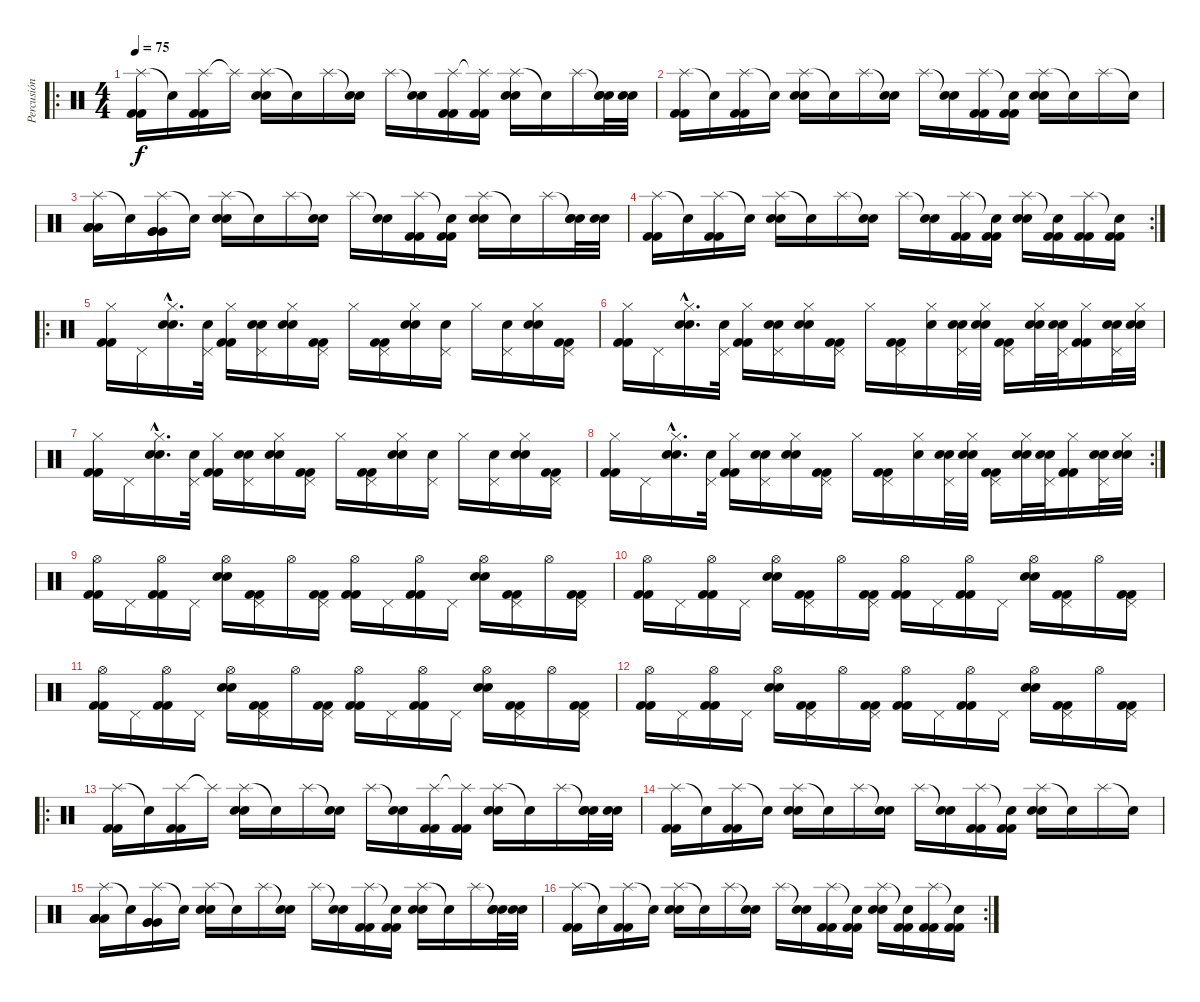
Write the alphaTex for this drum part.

\track ("Percusión" "Percusión") {instrument percussion}
\staff {score}
\articulation defaults
\ro
\ts (4 4)
\tempo 75
\clef neutral
\ks c
("Splash (hit)" "Kick (hit) 2" "Kick (hit) 2").16{dy f} "Snare (hit)"{t}.16 ("Splash (hit)" "Kick (hit) 2" "Kick (hit) 2").16 "Splash (hit)"{t}.16 ("Splash (hit)" "Electric Snare (hit)" "Electric Snare (hit)").16 "Snare (hit)"{t}.16 "Splash (hit)".16 ("Snare (hit)"{t} "Electric Snare (hit)").16 "Splash (hit)".16 ("Snare (hit)"{t} "Electric Snare (hit)").16 ("Splash (hit)" "Kick (hit) 2" "Kick (hit) 2").16 ("Splash (hit)"{t} "Kick (hit) 2" "Kick (hit) 2").16 ("Splash (hit)" "Electric Snare (hit)" "Electric Snare (hit)").16 "Snare (hit)"{t}.16 "Splash (hit)".16 ("Snare (hit)"{t} "Electric Snare (hit)" "Electric Snare (hit)").32 ("Electric Snare (hit)" "Electric Snare (hit)").32 |
("Splash (hit)" "Kick (hit) 2" "Kick (hit) 2").16 "Snare (hit)"{t}.16 ("Splash (hit)" "Kick (hit) 2" "Kick (hit) 2").16 "Snare (hit)"{t}.16 ("Splash (hit)" "Electric Snare (hit)" "Electric Snare (hit)").16 "Snare (hit)"{t}.16 "Splash (hit)".16 ("Snare (hit)"{t} "Electric Snare (hit)").16 "Splash (hit)".16 ("Snare (hit)"{t} "Electric Snare (hit)").16 ("Splash (hit)" "Kick (hit) 2" "Kick (hit) 2").16 ("Snare (hit)"{t} "Kick (hit) 2" "Kick (hit) 2").16 ("Splash (hit)" "Electric Snare (hit)" "Electric Snare (hit)").16 "Snare (hit)"{t}.16 "Splash (hit)".16 "Snare (hit)"{t}.16 |
("Splash (hit)" "Low Tom (hit)" "Low Tom (hit)" "Low Tom (hit)").16 "Snare (hit)"{t}.16 ("Splash (hit)" "Very Low Tom (hit)" "Very Low Tom (hit)" "Very Low Tom (hit)").16 "Snare (hit)"{t}.16 ("Splash (hit)" "Electric Snare (hit)" "Electric Snare (hit)").16 "Snare (hit)"{t}.16 "Splash (hit)".16 ("Snare (hit)"{t} "Electric Snare (hit)").16 "Splash (hit)".16 ("Snare (hit)"{t} "Electric Snare (hit)").16 ("Splash (hit)" "Kick (hit) 2" "Kick (hit) 2").16 ("Snare (hit)"{t} "Kick (hit) 2" "Kick (hit) 2").16 ("Splash (hit)" "Electric Snare (hit)" "Electric Snare (hit)").16 "Snare (hit)"{t}.16 "Splash (hit)".16 ("Snare (hit)"{t} "Electric Snare (hit)" "Electric Snare (hit)").32 ("Electric Snare (hit)" "Electric Snare (hit)").32 |
\rc 2
("Splash (hit)" "Kick (hit) 2" "Kick (hit) 2").16 "Snare (hit)"{t}.16 ("Splash (hit)" "Kick (hit) 2" "Kick (hit) 2").16 "Snare (hit)"{t}.16 ("Splash (hit)" "Electric Snare (hit)" "Electric Snare (hit)").16 "Snare (hit)"{t}.16 "Splash (hit)".16 ("Snare (hit)"{t} "Electric Snare (hit)").16 "Splash (hit)".16 ("Snare (hit)"{t} "Electric Snare (hit)").16 ("Splash (hit)" "Kick (hit) 2" "Kick (hit) 2").16 ("Snare (hit)"{t} "Kick (hit) 2" "Kick (hit) 2").16 ("Splash (hit)" "Electric Snare (hit)" "Electric Snare (hit)").16 ("Snare (hit)"{t} "Kick (hit) 2" "Kick (hit) 2").16 ("Splash (hit)" "Kick (hit) 2" "Kick (hit) 2").16 ("Snare (hit)"{t} "Kick (hit) 2" "Kick (hit) 2").16 |
\ro
("Hi-Hat (closed)" "Kick (hit) 2" "Kick (hit) 2").16 "Pedal Hi-Hat (hit)".16 ("Hi-Hat (closed)"{hac} "Electric Snare (hit)"{hac} "Electric Snare (hit)"{hac}).16{d} ("Pedal Hi-Hat (hit)" "Electric Snare (hit)").32 ("Hi-Hat (closed)" "Kick (hit) 2" "Kick (hit) 2").16 ("Pedal Hi-Hat (hit)" "Electric Snare (hit)" "Electric Snare (hit)").16 ("Hi-Hat (closed)" "Electric Snare (hit)" "Electric Snare (hit)").16 ("Pedal Hi-Hat (hit)" "Kick (hit) 2" "Kick (hit) 2").16 "Hi-Hat (closed)".16 ("Pedal Hi-Hat (hit)" "Kick (hit) 2" "Kick (hit) 2").16 ("Hi-Hat (closed)" "Electric Snare (hit)" "Electric Snare (hit)").16 ("Pedal Hi-Hat (hit)" "Electric Snare (hit)").16 "Hi-Hat (closed)".16 ("Pedal Hi-Hat (hit)" "Electric Snare (hit)").16 ("Hi-Hat (closed)" "Electric Snare (hit)" "Electric Snare (hit)").16 ("Pedal Hi-Hat (hit)" "Kick (hit) 2" "Kick (hit) 2").16 |
("Hi-Hat (closed)" "Kick (hit) 2" "Kick (hit) 2").16 "Pedal Hi-Hat (hit)".16 ("Hi-Hat (closed)"{hac} "Electric Snare (hit)"{hac} "Electric Snare (hit)"{hac}).16{d} ("Pedal Hi-Hat (hit)" "Electric Snare (hit)").32 ("Hi-Hat (closed)" "Kick (hit) 2" "Kick (hit) 2").16 ("Pedal Hi-Hat (hit)" "Electric Snare (hit)" "Electric Snare (hit)").16 ("Hi-Hat (closed)" "Electric Snare (hit)" "Electric Snare (hit)").16 ("Pedal Hi-Hat (hit)" "Kick (hit) 2" "Kick (hit) 2").16 "Hi-Hat (closed)".16 ("Pedal Hi-Hat (hit)" "Kick (hit) 2" "Kick (hit) 2").16 ("Hi-Hat (closed)" "Electric Snare (hit)").16 ("Pedal Hi-Hat (hit)" "Electric Snare (hit)" "Electric Snare (hit)").32 ("Hi-Hat (closed)" "Electric Snare (hit)" "Electric Snare (hit)").32 ("Pedal Hi-Hat (hit)" "Kick (hit) 2" "Kick (hit) 2").16 ("Hi-Hat (closed)" "Electric Snare (hit)" "Electric Snare (hit)").32 ("Pedal Hi-Hat (hit)" "Electric Snare (hit)" "Electric Snare (hit)").32 ("Hi-Hat (closed)" "Kick (hit) 2" "Kick (hit) 2").16 ("Pedal Hi-Hat (hit)" "Electric Snare (hit)" "Electric Snare (hit)").32 ("Hi-Hat (closed)" "Electric Snare (hit)" "Electric Snare (hit)").32 |
("Hi-Hat (closed)" "Kick (hit) 2" "Kick (hit) 2").16 "Pedal Hi-Hat (hit)".16 ("Hi-Hat (closed)"{hac} "Electric Snare (hit)"{hac} "Electric Snare (hit)"{hac}).16{d} ("Pedal Hi-Hat (hit)" "Electric Snare (hit)").32 ("Hi-Hat (closed)" "Kick (hit) 2" "Kick (hit) 2").16 ("Pedal Hi-Hat (hit)" "Electric Snare (hit)" "Electric Snare (hit)").16 ("Hi-Hat (closed)" "Electric Snare (hit)" "Electric Snare (hit)").16 ("Pedal Hi-Hat (hit)" "Kick (hit) 2" "Kick (hit) 2").16 "Hi-Hat (closed)".16 ("Pedal Hi-Hat (hit)" "Kick (hit) 2" "Kick (hit) 2").16 ("Hi-Hat (closed)" "Electric Snare (hit)" "Electric Snare (hit)").16 ("Pedal Hi-Hat (hit)" "Electric Snare (hit)").16 "Hi-Hat (closed)".16 ("Pedal Hi-Hat (hit)" "Electric Snare (hit)").16 ("Hi-Hat (closed)" "Electric Snare (hit)" "Electric Snare (hit)").16 ("Pedal Hi-Hat (hit)" "Kick (hit) 2" "Kick (hit) 2").16 |
\rc 2
("Hi-Hat (closed)" "Kick (hit) 2" "Kick (hit) 2").16 "Pedal Hi-Hat (hit)".16 ("Hi-Hat (closed)"{hac} "Electric Snare (hit)"{hac} "Electric Snare (hit)"{hac}).16{d} ("Pedal Hi-Hat (hit)" "Electric Snare (hit)").32 ("Hi-Hat (closed)" "Kick (hit) 2" "Kick (hit) 2").16 ("Pedal Hi-Hat (hit)" "Electric Snare (hit)" "Electric Snare (hit)").16 ("Hi-Hat (closed)" "Electric Snare (hit)" "Electric Snare (hit)").16 ("Pedal Hi-Hat (hit)" "Kick (hit) 2" "Kick (hit) 2").16 "Hi-Hat (closed)".16 ("Pedal Hi-Hat (hit)" "Kick (hit) 2" "Kick (hit) 2").16 ("Hi-Hat (closed)" "Electric Snare (hit)").16 ("Pedal Hi-Hat (hit)" "Electric Snare (hit)" "Electric Snare (hit)").32 ("Hi-Hat (closed)" "Electric Snare (hit)" "Electric Snare (hit)").32 ("Pedal Hi-Hat (hit)" "Kick (hit) 2" "Kick (hit) 2").16 ("Hi-Hat (closed)" "Electric Snare (hit)" "Electric Snare (hit)").32 ("Pedal Hi-Hat (hit)" "Electric Snare (hit)" "Electric Snare (hit)").32 ("Hi-Hat (closed)" "Kick (hit) 2" "Kick (hit) 2").16 ("Pedal Hi-Hat (hit)" "Electric Snare (hit)" "Electric Snare (hit)").32 ("Hi-Hat (closed)" "Electric Snare (hit)" "Electric Snare (hit)").32 |
("Hi-Hat (open)" "Kick (hit) 2" "Kick (hit) 2").16 "Pedal Hi-Hat (hit)".16 ("Hi-Hat (open)" "Kick (hit) 2" "Kick (hit) 2").16 "Pedal Hi-Hat (hit)".16 ("Hi-Hat (open)" "Electric Snare (hit)" "Electric Snare (hit)").16 ("Pedal Hi-Hat (hit)" "Kick (hit) 2" "Kick (hit) 2").16 "Hi-Hat (open)".16 ("Pedal Hi-Hat (hit)" "Kick (hit) 2" "Kick (hit) 2").16 ("Hi-Hat (open)" "Kick (hit) 2" "Kick (hit) 2").16 "Pedal Hi-Hat (hit)".16 ("Hi-Hat (open)" "Kick (hit) 2" "Kick (hit) 2").16 "Pedal Hi-Hat (hit)".16 ("Hi-Hat (open)" "Electric Snare (hit)" "Electric Snare (hit)").16 ("Pedal Hi-Hat (hit)" "Kick (hit) 2" "Kick (hit) 2").16 "Hi-Hat (open)".16 ("Pedal Hi-Hat (hit)" "Kick (hit) 2" "Kick (hit) 2").16 |
("Hi-Hat (open)" "Kick (hit) 2" "Kick (hit) 2").16 "Pedal Hi-Hat (hit)".16 ("Hi-Hat (open)" "Kick (hit) 2" "Kick (hit) 2").16 "Pedal Hi-Hat (hit)".16 ("Hi-Hat (open)" "Electric Snare (hit)" "Electric Snare (hit)").16 ("Pedal Hi-Hat (hit)" "Kick (hit) 2" "Kick (hit) 2").16 "Hi-Hat (open)".16 ("Pedal Hi-Hat (hit)" "Kick (hit) 2" "Kick (hit) 2").16 ("Hi-Hat (open)" "Kick (hit) 2" "Kick (hit) 2").16 "Pedal Hi-Hat (hit)".16 ("Hi-Hat (open)" "Kick (hit) 2" "Kick (hit) 2").16 "Pedal Hi-Hat (hit)".16 ("Hi-Hat (open)" "Electric Snare (hit)" "Electric Snare (hit)").16 ("Pedal Hi-Hat (hit)" "Kick (hit) 2" "Kick (hit) 2").16 "Hi-Hat (open)".16 ("Pedal Hi-Hat (hit)" "Kick (hit) 2" "Kick (hit) 2").16 |
("Hi-Hat (open)" "Kick (hit) 2" "Kick (hit) 2").16 "Pedal Hi-Hat (hit)".16 ("Hi-Hat (open)" "Kick (hit) 2" "Kick (hit) 2").16 "Pedal Hi-Hat (hit)".16 ("Hi-Hat (open)" "Electric Snare (hit)" "Electric Snare (hit)").16 ("Pedal Hi-Hat (hit)" "Kick (hit) 2" "Kick (hit) 2").16 "Hi-Hat (open)".16 ("Pedal Hi-Hat (hit)" "Kick (hit) 2" "Kick (hit) 2").16 ("Hi-Hat (open)" "Kick (hit) 2" "Kick (hit) 2").16 "Pedal Hi-Hat (hit)".16 ("Hi-Hat (open)" "Kick (hit) 2" "Kick (hit) 2").16 "Pedal Hi-Hat (hit)".16 ("Hi-Hat (open)" "Electric Snare (hit)" "Electric Snare (hit)").16 ("Pedal Hi-Hat (hit)" "Kick (hit) 2" "Kick (hit) 2").16 "Hi-Hat (open)".16 ("Pedal Hi-Hat (hit)" "Kick (hit) 2" "Kick (hit) 2").16 |
("Hi-Hat (open)" "Kick (hit) 2" "Kick (hit) 2").16 "Pedal Hi-Hat (hit)".16 ("Hi-Hat (open)" "Kick (hit) 2" "Kick (hit) 2").16 "Pedal Hi-Hat (hit)".16 ("Hi-Hat (open)" "Electric Snare (hit)" "Electric Snare (hit)").16 ("Pedal Hi-Hat (hit)" "Kick (hit) 2" "Kick (hit) 2").16 "Hi-Hat (open)".16 ("Pedal Hi-Hat (hit)" "Kick (hit) 2" "Kick (hit) 2").16 ("Hi-Hat (open)" "Kick (hit) 2" "Kick (hit) 2").16 "Pedal Hi-Hat (hit)".16 ("Hi-Hat (open)" "Kick (hit) 2" "Kick (hit) 2").16 "Pedal Hi-Hat (hit)".16 ("Hi-Hat (open)" "Electric Snare (hit)" "Electric Snare (hit)").16 ("Pedal Hi-Hat (hit)" "Kick (hit) 2" "Kick (hit) 2").16 "Hi-Hat (open)".16 ("Pedal Hi-Hat (hit)" "Kick (hit) 2" "Kick (hit) 2").16 |
\ro
("Splash (hit)" "Kick (hit) 2" "Kick (hit) 2").16 "Snare (hit)"{t}.16 ("Splash (hit)" "Kick (hit) 2" "Kick (hit) 2").16 "Splash (hit)"{t}.16 ("Splash (hit)" "Electric Snare (hit)" "Electric Snare (hit)").16 "Snare (hit)"{t}.16 "Splash (hit)".16 ("Snare (hit)"{t} "Electric Snare (hit)").16 "Splash (hit)".16 ("Snare (hit)"{t} "Electric Snare (hit)").16 ("Splash (hit)" "Kick (hit) 2" "Kick (hit) 2").16 ("Splash (hit)"{t} "Kick (hit) 2" "Kick (hit) 2").16 ("Splash (hit)" "Electric Snare (hit)" "Electric Snare (hit)").16 "Snare (hit)"{t}.16 "Splash (hit)".16 ("Snare (hit)"{t} "Electric Snare (hit)" "Electric Snare (hit)").32 ("Electric Snare (hit)" "Electric Snare (hit)").32 |
("Splash (hit)" "Kick (hit) 2" "Kick (hit) 2").16 "Snare (hit)"{t}.16 ("Splash (hit)" "Kick (hit) 2" "Kick (hit) 2").16 "Snare (hit)"{t}.16 ("Splash (hit)" "Electric Snare (hit)" "Electric Snare (hit)").16 "Snare (hit)"{t}.16 "Splash (hit)".16 ("Snare (hit)"{t} "Electric Snare (hit)").16 "Splash (hit)".16 ("Snare (hit)"{t} "Electric Snare (hit)").16 ("Splash (hit)" "Kick (hit) 2" "Kick (hit) 2").16 ("Snare (hit)"{t} "Kick (hit) 2" "Kick (hit) 2").16 ("Splash (hit)" "Electric Snare (hit)" "Electric Snare (hit)").16 "Snare (hit)"{t}.16 "Splash (hit)".16 "Snare (hit)"{t}.16 |
("Splash (hit)" "Low Tom (hit)" "Low Tom (hit)" "Low Tom (hit)").16 "Snare (hit)"{t}.16 ("Splash (hit)" "Very Low Tom (hit)" "Very Low Tom (hit)" "Very Low Tom (hit)").16 "Snare (hit)"{t}.16 ("Splash (hit)" "Electric Snare (hit)" "Electric Snare (hit)").16 "Snare (hit)"{t}.16 "Splash (hit)".16 ("Snare (hit)"{t} "Electric Snare (hit)").16 "Splash (hit)".16 ("Snare (hit)"{t} "Electric Snare (hit)").16 ("Splash (hit)" "Kick (hit) 2" "Kick (hit) 2").16 ("Snare (hit)"{t} "Kick (hit) 2" "Kick (hit) 2").16 ("Splash (hit)" "Electric Snare (hit)" "Electric Snare (hit)").16 "Snare (hit)"{t}.16 "Splash (hit)".16 ("Snare (hit)"{t} "Electric Snare (hit)" "Electric Snare (hit)").32 ("Electric Snare (hit)" "Electric Snare (hit)").32 |
\rc 2
("Splash (hit)" "Kick (hit) 2" "Kick (hit) 2").16 "Snare (hit)"{t}.16 ("Splash (hit)" "Kick (hit) 2" "Kick (hit) 2").16 "Snare (hit)"{t}.16 ("Splash (hit)" "Electric Snare (hit)" "Electric Snare (hit)").16 "Snare (hit)"{t}.16 "Splash (hit)".16 ("Snare (hit)"{t} "Electric Snare (hit)").16 "Splash (hit)".16 ("Snare (hit)"{t} "Electric Snare (hit)").16 ("Splash (hit)" "Kick (hit) 2" "Kick (hit) 2").16 ("Snare (hit)"{t} "Kick (hit) 2" "Kick (hit) 2").16 ("Splash (hit)" "Electric Snare (hit)" "Electric Snare (hit)").16 ("Snare (hit)"{t} "Kick (hit) 2" "Kick (hit) 2").16 ("Splash (hit)" "Kick (hit) 2" "Kick (hit) 2").16 ("Snare (hit)"{t} "Kick (hit) 2" "Kick (hit) 2").16
